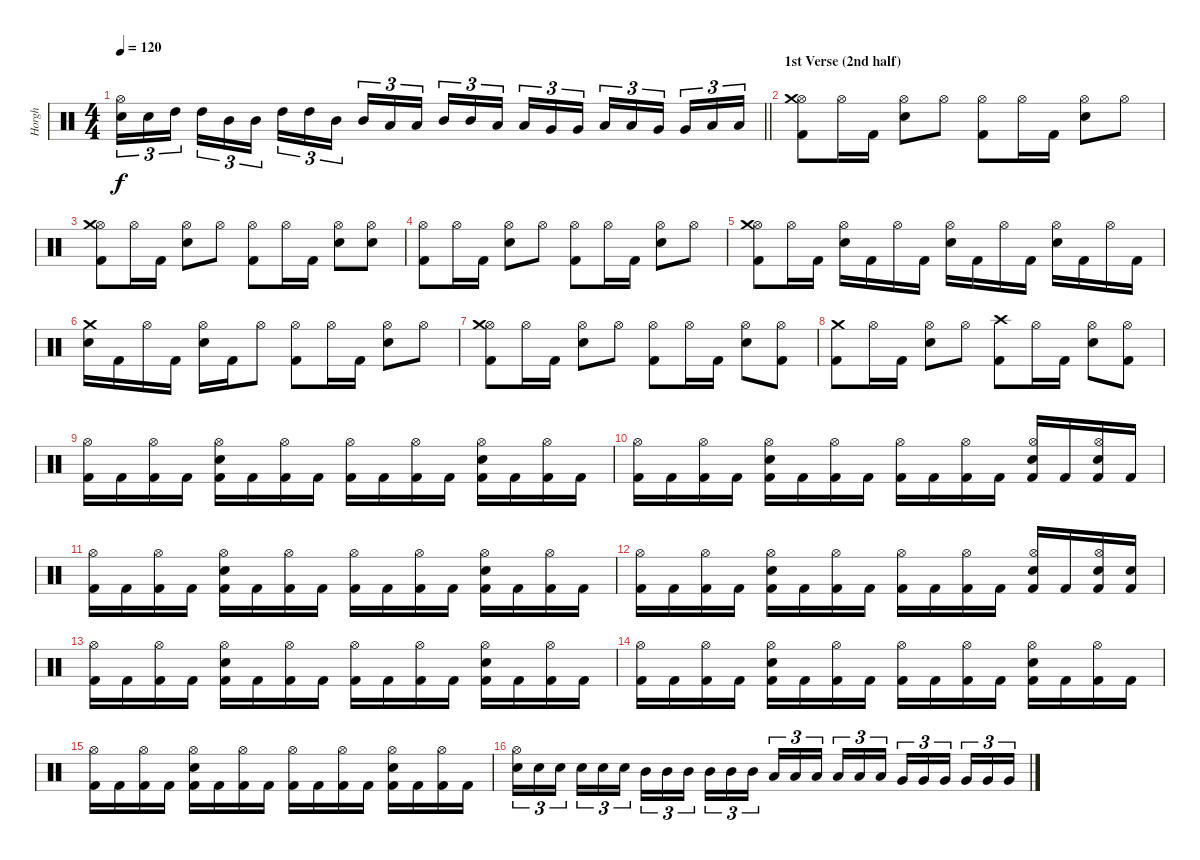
\track ("Horgh" "Horgh") {instrument percussion}
\staff {score}
\articulation defaults
\ts (4 4)
\tempo 120
\clef neutral
\barLineRight lightlight
\ks c
("Electric Snare (hit)" "Hi-Hat (open)").16{tu (3 2) dy f} "Electric Snare (hit)".16{tu (3 2)} "High Tom (hit)".16{tu (3 2) beam splitsecondary} "High Tom (hit)".16{tu (3 2)} "Mid Tom (hit)".16{tu (3 2)} "Mid Tom (hit)".16{tu (3 2)} "High Tom (hit)".16{tu (3 2)} "High Tom (hit)".16{tu (3 2)} "Mid Tom (hit)".16{tu (3 2) beam splitsecondary} "Mid Tom (hit)".16{tu (3 2)} "Low Tom (hit)".16{tu (3 2)} "Low Tom (hit)".16{tu (3 2)} "Mid Tom (hit)".16{tu (3 2)} "Mid Tom (hit)".16{tu (3 2)} "Low Tom (hit)".16{tu (3 2) beam splitsecondary} "Low Tom (hit)".16{tu (3 2)} "Very Low Tom (hit)".16{tu (3 2)} "Very Low Tom (hit)".16{tu (3 2)} "Low Tom (hit)".16{tu (3 2)} "Low Tom (hit)".16{tu (3 2)} "Very Low Tom (hit)".16{tu (3 2) beam splitsecondary} "Very Low Tom (hit)".16{tu (3 2)} "Low Floor Tom (hit)".16{tu (3 2)} "Low Floor Tom (hit)".16{tu (3 2)} |
\section ("" "1st Verse (2nd half)")
("Kick (hit) 2" "Hi-Hat (open)" "Crash medium (hit)").8 "Hi-Hat (open)".16 "Kick (hit) 2".16 ("Electric Snare (hit)" "Hi-Hat (open)").8 "Hi-Hat (open)".8 ("Kick (hit) 2" "Hi-Hat (open)").8 "Hi-Hat (open)".16 "Kick (hit) 2".16 ("Electric Snare (hit)" "Hi-Hat (open)").8 "Hi-Hat (open)".8 |
("Kick (hit) 2" "Hi-Hat (open)" "Crash medium (hit)").8 "Hi-Hat (open)".16 "Kick (hit) 2".16 ("Electric Snare (hit)" "Hi-Hat (open)").8 "Hi-Hat (open)".8 ("Kick (hit) 2" "Hi-Hat (open)").8 "Hi-Hat (open)".16 "Kick (hit) 2".16 ("Electric Snare (hit)" "Hi-Hat (open)").8 ("Electric Snare (hit)" "Hi-Hat (open)").8 |
("Kick (hit) 2" "Hi-Hat (open)").8 "Hi-Hat (open)".16 "Kick (hit) 2".16 ("Electric Snare (hit)" "Hi-Hat (open)").8 "Hi-Hat (open)".8 ("Kick (hit) 2" "Hi-Hat (open)").8 "Hi-Hat (open)".16 "Kick (hit) 2".16 ("Electric Snare (hit)" "Hi-Hat (open)").8 "Hi-Hat (open)".8 |
("Kick (hit) 2" "Hi-Hat (open)" "Crash medium (hit)").8 "Hi-Hat (open)".16 "Kick (hit) 2".16 ("Electric Snare (hit)" "Hi-Hat (open)").16 "Kick (hit) 2".16 "Hi-Hat (open)".16 "Kick (hit) 2".16 ("Electric Snare (hit)" "Hi-Hat (open)").16 "Kick (hit) 2".16 "Hi-Hat (open)".16 "Kick (hit) 2".16 ("Electric Snare (hit)" "Hi-Hat (open)").16 "Kick (hit) 2".16 "Hi-Hat (open)".16 "Kick (hit) 2".16 |
("Electric Snare (hit)" "Crash medium (hit)").16 "Kick (hit) 2".16 "Hi-Hat (open)".16 "Kick (hit) 2".16 ("Electric Snare (hit)" "Hi-Hat (open)").16 "Kick (hit) 2".16 "Hi-Hat (open)".8 ("Kick (hit) 2" "Hi-Hat (open)").8 "Hi-Hat (open)".16 "Kick (hit) 2".16 ("Electric Snare (hit)" "Hi-Hat (open)").8 "Hi-Hat (open)".8 |
("Kick (hit) 2" "Hi-Hat (open)" "Crash medium (hit)").8 "Hi-Hat (open)".16 "Kick (hit) 2".16 ("Electric Snare (hit)" "Hi-Hat (open)").8 "Hi-Hat (open)".8 ("Kick (hit) 2" "Hi-Hat (open)").8 "Hi-Hat (open)".16 "Kick (hit) 2".16 ("Electric Snare (hit)" "Hi-Hat (open)").8 ("Kick (hit) 2" "Hi-Hat (open)").8 |
("Kick (hit) 2" "Crash medium (hit)").8 "Hi-Hat (open)".16 "Kick (hit) 2".16 ("Electric Snare (hit)" "Hi-Hat (open)").8 "Hi-Hat (open)".8 ("Kick (hit) 2" "Crash high (hit)").8 "Hi-Hat (open)".16 "Kick (hit) 2".16 ("Electric Snare (hit)" "Hi-Hat (open)").8 ("Kick (hit) 2" "Hi-Hat (open)").8 |
("Kick (hit) 2" "Hi-Hat (open)").16 "Kick (hit) 2".16 ("Kick (hit) 2" "Hi-Hat (open)").16 "Kick (hit) 2".16 ("Kick (hit) 2" "Electric Snare (hit)" "Hi-Hat (open)").16 "Kick (hit) 2".16 ("Kick (hit) 2" "Hi-Hat (open)").16 "Kick (hit) 2".16 ("Kick (hit) 2" "Hi-Hat (open)").16 "Kick (hit) 2".16 ("Kick (hit) 2" "Hi-Hat (open)").16 "Kick (hit) 2".16 ("Kick (hit) 2" "Electric Snare (hit)" "Hi-Hat (open)").16 "Kick (hit) 2".16 ("Kick (hit) 2" "Hi-Hat (open)").16 "Kick (hit) 2".16 |
("Kick (hit) 2" "Hi-Hat (open)").16 "Kick (hit) 2".16 ("Kick (hit) 2" "Hi-Hat (open)").16 "Kick (hit) 2".16 ("Kick (hit) 2" "Electric Snare (hit)" "Hi-Hat (open)").16 "Kick (hit) 2".16 ("Kick (hit) 2" "Hi-Hat (open)").16 "Kick (hit) 2".16 ("Kick (hit) 2" "Hi-Hat (open)").16 "Kick (hit) 2".16 ("Kick (hit) 2" "Hi-Hat (open)").16 "Kick (hit) 2".16 ("Kick (hit) 2" "Electric Snare (hit)" "Hi-Hat (open)").16 "Kick (hit) 2".16 ("Kick (hit) 2" "Electric Snare (hit)" "Hi-Hat (open)").16 "Kick (hit) 2".16 |
("Kick (hit) 2" "Hi-Hat (open)").16 "Kick (hit) 2".16 ("Kick (hit) 2" "Hi-Hat (open)").16 "Kick (hit) 2".16 ("Kick (hit) 2" "Electric Snare (hit)" "Hi-Hat (open)").16 "Kick (hit) 2".16 ("Kick (hit) 2" "Hi-Hat (open)").16 "Kick (hit) 2".16 ("Kick (hit) 2" "Hi-Hat (open)").16 "Kick (hit) 2".16 ("Kick (hit) 2" "Hi-Hat (open)").16 "Kick (hit) 2".16 ("Kick (hit) 2" "Electric Snare (hit)" "Hi-Hat (open)").16 "Kick (hit) 2".16 ("Kick (hit) 2" "Hi-Hat (open)").16 "Kick (hit) 2".16 |
("Kick (hit) 2" "Hi-Hat (open)").16 "Kick (hit) 2".16 ("Kick (hit) 2" "Hi-Hat (open)").16 "Kick (hit) 2".16 ("Kick (hit) 2" "Electric Snare (hit)" "Hi-Hat (open)").16 "Kick (hit) 2".16 ("Kick (hit) 2" "Hi-Hat (open)").16 "Kick (hit) 2".16 ("Kick (hit) 2" "Hi-Hat (open)").16 "Kick (hit) 2".16 ("Kick (hit) 2" "Hi-Hat (open)").16 "Kick (hit) 2".16 ("Kick (hit) 2" "Electric Snare (hit)" "Hi-Hat (open)").16 "Kick (hit) 2".16 ("Kick (hit) 2" "Electric Snare (hit)" "Hi-Hat (open)").16 ("Kick (hit) 2" "Electric Snare (hit)").16 |
("Kick (hit) 2" "Hi-Hat (open)").16 "Kick (hit) 2".16 ("Kick (hit) 2" "Hi-Hat (open)").16 "Kick (hit) 2".16 ("Kick (hit) 2" "Electric Snare (hit)" "Hi-Hat (open)").16 "Kick (hit) 2".16 ("Kick (hit) 2" "Hi-Hat (open)").16 "Kick (hit) 2".16 ("Kick (hit) 2" "Hi-Hat (open)").16 "Kick (hit) 2".16 ("Kick (hit) 2" "Hi-Hat (open)").16 "Kick (hit) 2".16 ("Kick (hit) 2" "Electric Snare (hit)" "Hi-Hat (open)").16 "Kick (hit) 2".16 ("Kick (hit) 2" "Hi-Hat (open)").16 "Kick (hit) 2".16 |
("Kick (hit) 2" "Hi-Hat (open)").16 "Kick (hit) 2".16 ("Kick (hit) 2" "Hi-Hat (open)").16 "Kick (hit) 2".16 ("Kick (hit) 2" "Electric Snare (hit)" "Hi-Hat (open)").16 "Kick (hit) 2".16 ("Kick (hit) 2" "Hi-Hat (open)").16 "Kick (hit) 2".16 ("Kick (hit) 2" "Hi-Hat (open)").16 "Kick (hit) 2".16 ("Kick (hit) 2" "Hi-Hat (open)").16 "Kick (hit) 2".16 ("Kick (hit) 2" "Electric Snare (hit)" "Hi-Hat (open)").16 "Kick (hit) 2".16 ("Kick (hit) 2" "Hi-Hat (open)").16 "Kick (hit) 2".16 |
("Kick (hit) 2" "Hi-Hat (open)").16 "Kick (hit) 2".16 ("Kick (hit) 2" "Hi-Hat (open)").16 "Kick (hit) 2".16 ("Kick (hit) 2" "Electric Snare (hit)" "Hi-Hat (open)").16 "Kick (hit) 2".16 ("Kick (hit) 2" "Hi-Hat (open)").16 "Kick (hit) 2".16 ("Kick (hit) 2" "Hi-Hat (open)").16 "Kick (hit) 2".16 ("Kick (hit) 2" "Hi-Hat (open)").16 "Kick (hit) 2".16 ("Kick (hit) 2" "Electric Snare (hit)" "Hi-Hat (open)").16 "Kick (hit) 2".16 ("Kick (hit) 2" "Hi-Hat (open)").16 "Kick (hit) 2".16 |
("Electric Snare (hit)" "Hi-Hat (open)").16{tu (3 2)} "Electric Snare (hit)".16{tu (3 2)} "Electric Snare (hit)".16{tu (3 2) beam splitsecondary} "Electric Snare (hit)".16{tu (3 2)} "Electric Snare (hit)".16{tu (3 2)} "Electric Snare (hit)".16{tu (3 2)} "Mid Tom (hit)".16{tu (3 2)} "Mid Tom (hit)".16{tu (3 2)} "Mid Tom (hit)".16{tu (3 2) beam splitsecondary} "Mid Tom (hit)".16{tu (3 2)} "Mid Tom (hit)".16{tu (3 2)} "Mid Tom (hit)".16{tu (3 2)} "Low Tom (hit)".16{tu (3 2)} "Low Tom (hit)".16{tu (3 2)} "Low Tom (hit)".16{tu (3 2) beam splitsecondary} "Low Tom (hit)".16{tu (3 2)} "Low Tom (hit)".16{tu (3 2)} "Low Tom (hit)".16{tu (3 2)} "Very Low Tom (hit)".16{tu (3 2)} "Very Low Tom (hit)".16{tu (3 2)} "Very Low Tom (hit)".16{tu (3 2) beam splitsecondary} "Very Low Tom (hit)".16{tu (3 2)} "Very Low Tom (hit)".16{tu (3 2)} "Very Low Tom (hit)".16{tu (3 2)}
